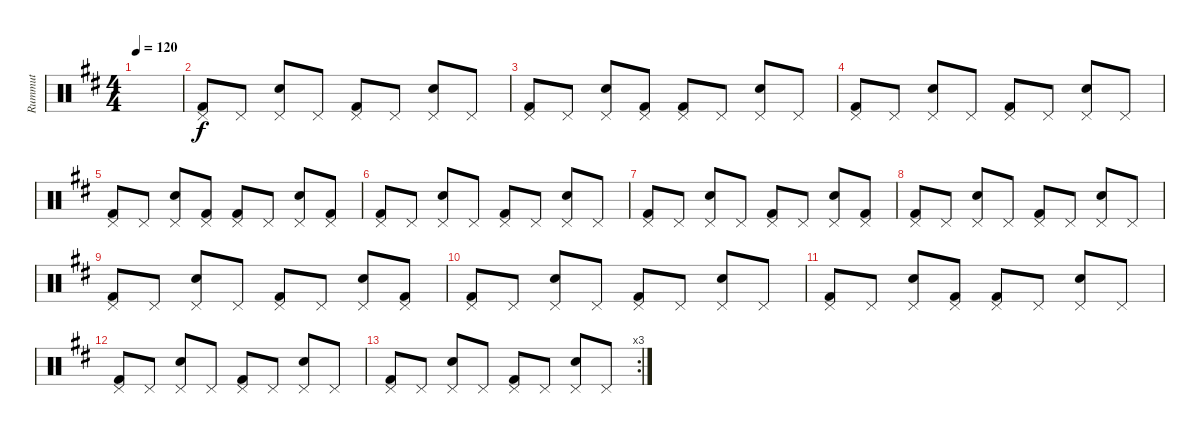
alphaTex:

\track ("Rummut" "Rummut") {instrument percussion}
\staff {score}
\articulation defaults
\ts (4 4)
\tempo 120
\clef neutral
\ks d
|
("Pedal Hi-Hat (hit)" "Kick (hit) 2").8 "Pedal Hi-Hat (hit)".8 ("Pedal Hi-Hat (hit)" "Snare (hit) 2").8 "Pedal Hi-Hat (hit)".8 ("Pedal Hi-Hat (hit)" "Kick (hit) 2").8 "Pedal Hi-Hat (hit)".8 ("Pedal Hi-Hat (hit)" "Snare (hit) 2").8 "Pedal Hi-Hat (hit)".8 |
("Pedal Hi-Hat (hit)" "Kick (hit) 2").8 "Pedal Hi-Hat (hit)".8 ("Pedal Hi-Hat (hit)" "Snare (hit) 2").8 ("Pedal Hi-Hat (hit)" "Kick (hit) 2").8 ("Pedal Hi-Hat (hit)" "Kick (hit) 2").8 "Pedal Hi-Hat (hit)".8 ("Pedal Hi-Hat (hit)" "Snare (hit) 2").8 "Pedal Hi-Hat (hit)".8 |
("Pedal Hi-Hat (hit)" "Kick (hit) 2").8 "Pedal Hi-Hat (hit)".8 ("Pedal Hi-Hat (hit)" "Snare (hit) 2").8 "Pedal Hi-Hat (hit)".8 ("Pedal Hi-Hat (hit)" "Kick (hit) 2").8 "Pedal Hi-Hat (hit)".8 ("Pedal Hi-Hat (hit)" "Snare (hit) 2").8 "Pedal Hi-Hat (hit)".8 |
("Pedal Hi-Hat (hit)" "Kick (hit) 2").8 "Pedal Hi-Hat (hit)".8 ("Pedal Hi-Hat (hit)" "Snare (hit) 2").8 ("Pedal Hi-Hat (hit)" "Kick (hit) 2").8 ("Pedal Hi-Hat (hit)" "Kick (hit) 2").8 "Pedal Hi-Hat (hit)".8 ("Pedal Hi-Hat (hit)" "Snare (hit) 2").8 ("Pedal Hi-Hat (hit)" "Kick (hit) 2").8 |
("Pedal Hi-Hat (hit)" "Kick (hit) 2").8 "Pedal Hi-Hat (hit)".8 ("Pedal Hi-Hat (hit)" "Snare (hit) 2").8 "Pedal Hi-Hat (hit)".8 ("Pedal Hi-Hat (hit)" "Kick (hit) 2").8 "Pedal Hi-Hat (hit)".8 ("Pedal Hi-Hat (hit)" "Snare (hit) 2").8 "Pedal Hi-Hat (hit)".8 |
("Pedal Hi-Hat (hit)" "Kick (hit) 2").8 "Pedal Hi-Hat (hit)".8 ("Pedal Hi-Hat (hit)" "Snare (hit) 2").8 "Pedal Hi-Hat (hit)".8 ("Pedal Hi-Hat (hit)" "Kick (hit) 2").8 "Pedal Hi-Hat (hit)".8 ("Pedal Hi-Hat (hit)" "Snare (hit) 2").8 ("Pedal Hi-Hat (hit)" "Kick (hit) 2").8 |
("Pedal Hi-Hat (hit)" "Kick (hit) 2").8 "Pedal Hi-Hat (hit)".8 ("Pedal Hi-Hat (hit)" "Snare (hit) 2").8 "Pedal Hi-Hat (hit)".8 ("Pedal Hi-Hat (hit)" "Kick (hit) 2").8 "Pedal Hi-Hat (hit)".8 ("Pedal Hi-Hat (hit)" "Snare (hit) 2").8 "Pedal Hi-Hat (hit)".8 |
("Pedal Hi-Hat (hit)" "Kick (hit) 2").8 "Pedal Hi-Hat (hit)".8 ("Pedal Hi-Hat (hit)" "Snare (hit) 2").8 "Pedal Hi-Hat (hit)".8 ("Pedal Hi-Hat (hit)" "Kick (hit) 2").8 "Pedal Hi-Hat (hit)".8 ("Pedal Hi-Hat (hit)" "Snare (hit) 2").8 ("Pedal Hi-Hat (hit)" "Kick (hit) 2").8 |
("Pedal Hi-Hat (hit)" "Kick (hit) 2").8 "Pedal Hi-Hat (hit)".8 ("Pedal Hi-Hat (hit)" "Snare (hit) 2").8 "Pedal Hi-Hat (hit)".8 ("Pedal Hi-Hat (hit)" "Kick (hit) 2").8 "Pedal Hi-Hat (hit)".8 ("Pedal Hi-Hat (hit)" "Snare (hit) 2").8 "Pedal Hi-Hat (hit)".8 |
("Pedal Hi-Hat (hit)" "Kick (hit) 2").8 "Pedal Hi-Hat (hit)".8 ("Pedal Hi-Hat (hit)" "Snare (hit) 2").8 ("Pedal Hi-Hat (hit)" "Kick (hit) 2").8 ("Pedal Hi-Hat (hit)" "Kick (hit) 2").8 "Pedal Hi-Hat (hit)".8 ("Pedal Hi-Hat (hit)" "Snare (hit) 2").8 "Pedal Hi-Hat (hit)".8 |
("Pedal Hi-Hat (hit)" "Kick (hit) 2").8 "Pedal Hi-Hat (hit)".8 ("Pedal Hi-Hat (hit)" "Snare (hit) 2").8 "Pedal Hi-Hat (hit)".8 ("Pedal Hi-Hat (hit)" "Kick (hit) 2").8 "Pedal Hi-Hat (hit)".8 ("Pedal Hi-Hat (hit)" "Snare (hit) 2").8 "Pedal Hi-Hat (hit)".8 |
\rc 3
("Pedal Hi-Hat (hit)" "Kick (hit) 2").8 "Pedal Hi-Hat (hit)".8 ("Pedal Hi-Hat (hit)" "Snare (hit) 2").8 "Pedal Hi-Hat (hit)".8 ("Pedal Hi-Hat (hit)" "Kick (hit) 2").8 "Pedal Hi-Hat (hit)".8 ("Pedal Hi-Hat (hit)" "Snare (hit) 2").8 "Pedal Hi-Hat (hit)".8
